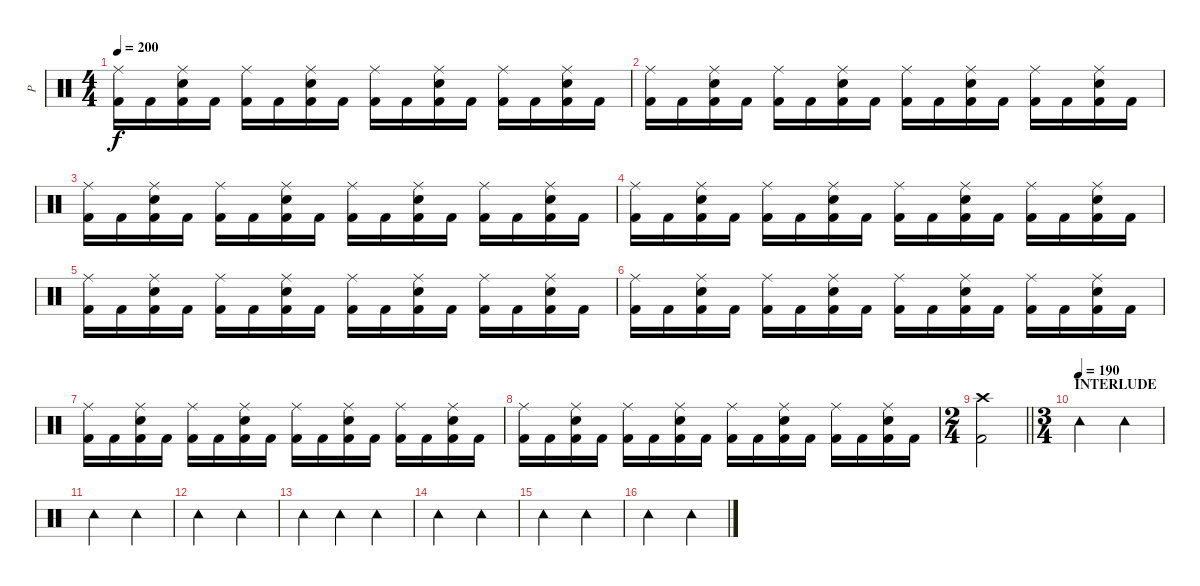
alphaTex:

\track ("P" "P") {instrument percussion}
\staff {score}
\articulation defaults
\ts (4 4)
\tempo 200
\clef neutral
\ks c
("Ride (middle)" "Kick (hit) 2").16{dy f} "Kick (hit) 2".16 ("Ride (middle)" "Electric Snare (hit)" "Kick (hit) 2").16 "Kick (hit) 2".16 ("Ride (middle)" "Kick (hit) 2").16 "Kick (hit) 2".16 ("Ride (middle)" "Electric Snare (hit)" "Kick (hit) 2").16 "Kick (hit) 2".16 ("Ride (middle)" "Kick (hit) 2").16 "Kick (hit) 2".16 ("Ride (middle)" "Electric Snare (hit)" "Kick (hit) 2").16 "Kick (hit) 2".16 ("Ride (middle)" "Kick (hit) 2").16 "Kick (hit) 2".16 ("Ride (middle)" "Electric Snare (hit)" "Kick (hit) 2").16 "Kick (hit) 2".16 |
("Ride (middle)" "Kick (hit) 2").16 "Kick (hit) 2".16 ("Ride (middle)" "Electric Snare (hit)" "Kick (hit) 2").16 "Kick (hit) 2".16 ("Ride (middle)" "Kick (hit) 2").16 "Kick (hit) 2".16 ("Ride (middle)" "Electric Snare (hit)" "Kick (hit) 2").16 "Kick (hit) 2".16 ("Ride (middle)" "Kick (hit) 2").16 "Kick (hit) 2".16 ("Ride (middle)" "Electric Snare (hit)" "Kick (hit) 2").16 "Kick (hit) 2".16 ("Ride (middle)" "Kick (hit) 2").16 "Kick (hit) 2".16 ("Ride (middle)" "Electric Snare (hit)" "Kick (hit) 2").16 "Kick (hit) 2".16 |
("Ride (middle)" "Kick (hit) 2").16 "Kick (hit) 2".16 ("Ride (middle)" "Electric Snare (hit)" "Kick (hit) 2").16 "Kick (hit) 2".16 ("Ride (middle)" "Kick (hit) 2").16 "Kick (hit) 2".16 ("Ride (middle)" "Electric Snare (hit)" "Kick (hit) 2").16 "Kick (hit) 2".16 ("Ride (middle)" "Kick (hit) 2").16 "Kick (hit) 2".16 ("Ride (middle)" "Electric Snare (hit)" "Kick (hit) 2").16 "Kick (hit) 2".16 ("Ride (middle)" "Kick (hit) 2").16 "Kick (hit) 2".16 ("Ride (middle)" "Electric Snare (hit)" "Kick (hit) 2").16 "Kick (hit) 2".16 |
("Ride (middle)" "Kick (hit) 2").16 "Kick (hit) 2".16 ("Ride (middle)" "Electric Snare (hit)" "Kick (hit) 2").16 "Kick (hit) 2".16 ("Ride (middle)" "Kick (hit) 2").16 "Kick (hit) 2".16 ("Ride (middle)" "Electric Snare (hit)" "Kick (hit) 2").16 "Kick (hit) 2".16 ("Ride (middle)" "Kick (hit) 2").16 "Kick (hit) 2".16 ("Ride (middle)" "Electric Snare (hit)" "Kick (hit) 2").16 "Kick (hit) 2".16 ("Ride (middle)" "Kick (hit) 2").16 "Kick (hit) 2".16 ("Ride (middle)" "Electric Snare (hit)" "Kick (hit) 2").16 "Kick (hit) 2".16 |
("Ride (middle)" "Kick (hit) 2").16 "Kick (hit) 2".16 ("Ride (middle)" "Electric Snare (hit)" "Kick (hit) 2").16 "Kick (hit) 2".16 ("Ride (middle)" "Kick (hit) 2").16 "Kick (hit) 2".16 ("Ride (middle)" "Electric Snare (hit)" "Kick (hit) 2").16 "Kick (hit) 2".16 ("Ride (middle)" "Kick (hit) 2").16 "Kick (hit) 2".16 ("Ride (middle)" "Electric Snare (hit)" "Kick (hit) 2").16 "Kick (hit) 2".16 ("Ride (middle)" "Kick (hit) 2").16 "Kick (hit) 2".16 ("Ride (middle)" "Electric Snare (hit)" "Kick (hit) 2").16 "Kick (hit) 2".16 |
("Ride (middle)" "Kick (hit) 2").16 "Kick (hit) 2".16 ("Ride (middle)" "Electric Snare (hit)" "Kick (hit) 2").16 "Kick (hit) 2".16 ("Ride (middle)" "Kick (hit) 2").16 "Kick (hit) 2".16 ("Ride (middle)" "Electric Snare (hit)" "Kick (hit) 2").16 "Kick (hit) 2".16 ("Ride (middle)" "Kick (hit) 2").16 "Kick (hit) 2".16 ("Ride (middle)" "Electric Snare (hit)" "Kick (hit) 2").16 "Kick (hit) 2".16 ("Ride (middle)" "Kick (hit) 2").16 "Kick (hit) 2".16 ("Ride (middle)" "Electric Snare (hit)" "Kick (hit) 2").16 "Kick (hit) 2".16 |
("Ride (middle)" "Kick (hit) 2").16 "Kick (hit) 2".16 ("Ride (middle)" "Electric Snare (hit)" "Kick (hit) 2").16 "Kick (hit) 2".16 ("Ride (middle)" "Kick (hit) 2").16 "Kick (hit) 2".16 ("Ride (middle)" "Electric Snare (hit)" "Kick (hit) 2").16 "Kick (hit) 2".16 ("Ride (middle)" "Kick (hit) 2").16 "Kick (hit) 2".16 ("Ride (middle)" "Electric Snare (hit)" "Kick (hit) 2").16 "Kick (hit) 2".16 ("Ride (middle)" "Kick (hit) 2").16 "Kick (hit) 2".16 ("Ride (middle)" "Electric Snare (hit)" "Kick (hit) 2").16 "Kick (hit) 2".16 |
("Ride (middle)" "Kick (hit) 2").16 "Kick (hit) 2".16 ("Ride (middle)" "Electric Snare (hit)" "Kick (hit) 2").16 "Kick (hit) 2".16 ("Ride (middle)" "Kick (hit) 2").16 "Kick (hit) 2".16 ("Ride (middle)" "Electric Snare (hit)" "Kick (hit) 2").16 "Kick (hit) 2".16 ("Ride (middle)" "Kick (hit) 2").16 "Kick (hit) 2".16 ("Ride (middle)" "Electric Snare (hit)" "Kick (hit) 2").16 "Kick (hit) 2".16 ("Ride (middle)" "Kick (hit) 2").16 "Kick (hit) 2".16 ("Ride (middle)" "Electric Snare (hit)" "Kick (hit) 2").16 "Kick (hit) 2".16 |
\ts (2 4)
\barLineRight lightlight
("Crash high (hit)" "Kick (hit) 2").2 |
\ts (3 4)
\section ("" "INTERLUDE")
\tempo (190)
"Tambourine (hit)".2 "Tambourine (hit)".4 |
"Tambourine (hit)".2 "Tambourine (hit)".4 |
"Tambourine (hit)".2 "Tambourine (hit)".4 |
"Tambourine (hit)".4 "Tambourine (hit)".4 "Tambourine (hit)".4 |
"Tambourine (hit)".2 "Tambourine (hit)".4 |
"Tambourine (hit)".2 "Tambourine (hit)".4 |
"Tambourine (hit)".2 "Tambourine (hit)".4
